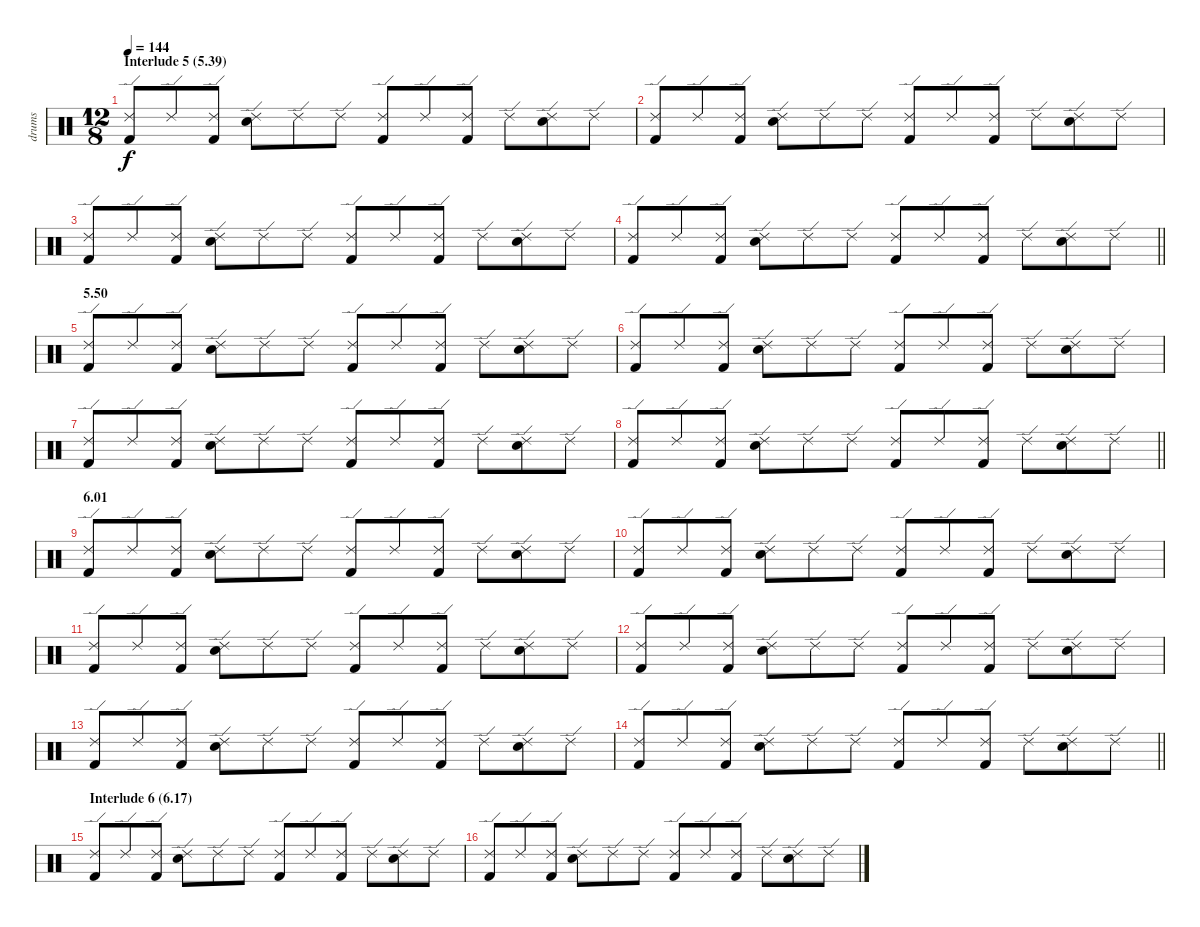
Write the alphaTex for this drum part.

\track ("drums" "drums") {instrument percussion}
\staff {score}
\articulation defaults
\ts (12 8)
\section ("" "Interlude 5 (5.39)")
\tempo 144
\clef neutral
\ks c
("Ride (edge) 2" "Kick (hit) 2").8{dy f} "Ride (edge) 2".8 ("Ride (edge) 2" "Kick (hit) 2").8 ("Ride (edge) 2" "Electric Snare (hit)").8 "Ride (edge) 2".8 "Ride (edge) 2".8 ("Ride (edge) 2" "Kick (hit) 2").8 "Ride (edge) 2".8 ("Ride (edge) 2" "Kick (hit) 2").8 "Ride (edge) 2".8 ("Ride (edge) 2" "Electric Snare (hit)").8 "Ride (edge) 2".8 |
("Ride (edge) 2" "Kick (hit) 2").8 "Ride (edge) 2".8 ("Ride (edge) 2" "Kick (hit) 2").8 ("Ride (edge) 2" "Electric Snare (hit)").8 "Ride (edge) 2".8 "Ride (edge) 2".8 ("Ride (edge) 2" "Kick (hit) 2").8 "Ride (edge) 2".8 ("Ride (edge) 2" "Kick (hit) 2").8 "Ride (edge) 2".8 ("Ride (edge) 2" "Electric Snare (hit)").8 "Ride (edge) 2".8 |
("Ride (edge) 2" "Kick (hit) 2").8 "Ride (edge) 2".8 ("Ride (edge) 2" "Kick (hit) 2").8 ("Ride (edge) 2" "Electric Snare (hit)").8 "Ride (edge) 2".8 "Ride (edge) 2".8 ("Ride (edge) 2" "Kick (hit) 2").8 "Ride (edge) 2".8 ("Ride (edge) 2" "Kick (hit) 2").8 "Ride (edge) 2".8 ("Ride (edge) 2" "Electric Snare (hit)").8 "Ride (edge) 2".8 |
\barLineRight lightlight
("Ride (edge) 2" "Kick (hit) 2").8 "Ride (edge) 2".8 ("Ride (edge) 2" "Kick (hit) 2").8 ("Ride (edge) 2" "Electric Snare (hit)").8 "Ride (edge) 2".8 "Ride (edge) 2".8 ("Ride (edge) 2" "Kick (hit) 2").8 "Ride (edge) 2".8 ("Ride (edge) 2" "Kick (hit) 2").8 "Ride (edge) 2".8 ("Ride (edge) 2" "Electric Snare (hit)").8 "Ride (edge) 2".8 |
\section ("" "5.50")
("Ride (edge) 2" "Kick (hit) 2").8 "Ride (edge) 2".8 ("Ride (edge) 2" "Kick (hit) 2").8 ("Ride (edge) 2" "Electric Snare (hit)").8 "Ride (edge) 2".8 "Ride (edge) 2".8 ("Ride (edge) 2" "Kick (hit) 2").8 "Ride (edge) 2".8 ("Ride (edge) 2" "Kick (hit) 2").8 "Ride (edge) 2".8 ("Ride (edge) 2" "Electric Snare (hit)").8 "Ride (edge) 2".8 |
("Ride (edge) 2" "Kick (hit) 2").8 "Ride (edge) 2".8 ("Ride (edge) 2" "Kick (hit) 2").8 ("Ride (edge) 2" "Electric Snare (hit)").8 "Ride (edge) 2".8 "Ride (edge) 2".8 ("Ride (edge) 2" "Kick (hit) 2").8 "Ride (edge) 2".8 ("Ride (edge) 2" "Kick (hit) 2").8 "Ride (edge) 2".8 ("Ride (edge) 2" "Electric Snare (hit)").8 "Ride (edge) 2".8 |
("Ride (edge) 2" "Kick (hit) 2").8 "Ride (edge) 2".8 ("Ride (edge) 2" "Kick (hit) 2").8 ("Ride (edge) 2" "Electric Snare (hit)").8 "Ride (edge) 2".8 "Ride (edge) 2".8 ("Ride (edge) 2" "Kick (hit) 2").8 "Ride (edge) 2".8 ("Ride (edge) 2" "Kick (hit) 2").8 "Ride (edge) 2".8 ("Ride (edge) 2" "Electric Snare (hit)").8 "Ride (edge) 2".8 |
\barLineRight lightlight
("Ride (edge) 2" "Kick (hit) 2").8 "Ride (edge) 2".8 ("Ride (edge) 2" "Kick (hit) 2").8 ("Ride (edge) 2" "Electric Snare (hit)").8 "Ride (edge) 2".8 "Ride (edge) 2".8 ("Ride (edge) 2" "Kick (hit) 2").8 "Ride (edge) 2".8 ("Ride (edge) 2" "Kick (hit) 2").8 "Ride (edge) 2".8 ("Ride (edge) 2" "Electric Snare (hit)").8 "Ride (edge) 2".8 |
\section ("" "6.01")
("Ride (edge) 2" "Kick (hit) 2").8 "Ride (edge) 2".8 ("Ride (edge) 2" "Kick (hit) 2").8 ("Ride (edge) 2" "Electric Snare (hit)").8 "Ride (edge) 2".8 "Ride (edge) 2".8 ("Ride (edge) 2" "Kick (hit) 2").8 "Ride (edge) 2".8 ("Ride (edge) 2" "Kick (hit) 2").8 "Ride (edge) 2".8 ("Ride (edge) 2" "Electric Snare (hit)").8 "Ride (edge) 2".8 |
("Ride (edge) 2" "Kick (hit) 2").8 "Ride (edge) 2".8 ("Ride (edge) 2" "Kick (hit) 2").8 ("Ride (edge) 2" "Electric Snare (hit)").8 "Ride (edge) 2".8 "Ride (edge) 2".8 ("Ride (edge) 2" "Kick (hit) 2").8 "Ride (edge) 2".8 ("Ride (edge) 2" "Kick (hit) 2").8 "Ride (edge) 2".8 ("Ride (edge) 2" "Electric Snare (hit)").8 "Ride (edge) 2".8 |
("Ride (edge) 2" "Kick (hit) 2").8 "Ride (edge) 2".8 ("Ride (edge) 2" "Kick (hit) 2").8 ("Ride (edge) 2" "Electric Snare (hit)").8 "Ride (edge) 2".8 "Ride (edge) 2".8 ("Ride (edge) 2" "Kick (hit) 2").8 "Ride (edge) 2".8 ("Ride (edge) 2" "Kick (hit) 2").8 "Ride (edge) 2".8 ("Ride (edge) 2" "Electric Snare (hit)").8 "Ride (edge) 2".8 |
("Ride (edge) 2" "Kick (hit) 2").8 "Ride (edge) 2".8 ("Ride (edge) 2" "Kick (hit) 2").8 ("Ride (edge) 2" "Electric Snare (hit)").8 "Ride (edge) 2".8 "Ride (edge) 2".8 ("Ride (edge) 2" "Kick (hit) 2").8 "Ride (edge) 2".8 ("Ride (edge) 2" "Kick (hit) 2").8 "Ride (edge) 2".8 ("Ride (edge) 2" "Electric Snare (hit)").8 "Ride (edge) 2".8 |
("Ride (edge) 2" "Kick (hit) 2").8 "Ride (edge) 2".8 ("Ride (edge) 2" "Kick (hit) 2").8 ("Ride (edge) 2" "Electric Snare (hit)").8 "Ride (edge) 2".8 "Ride (edge) 2".8 ("Ride (edge) 2" "Kick (hit) 2").8 "Ride (edge) 2".8 ("Ride (edge) 2" "Kick (hit) 2").8 "Ride (edge) 2".8 ("Ride (edge) 2" "Electric Snare (hit)").8 "Ride (edge) 2".8 |
\barLineRight lightlight
("Ride (edge) 2" "Kick (hit) 2").8 "Ride (edge) 2".8 ("Ride (edge) 2" "Kick (hit) 2").8 ("Ride (edge) 2" "Electric Snare (hit)").8 "Ride (edge) 2".8 "Ride (edge) 2".8 ("Ride (edge) 2" "Kick (hit) 2").8 "Ride (edge) 2".8 ("Ride (edge) 2" "Kick (hit) 2").8 "Ride (edge) 2".8 ("Ride (edge) 2" "Electric Snare (hit)").8 "Ride (edge) 2".8 |
\section ("" "Interlude 6 (6.17)")
("Ride (edge) 2" "Kick (hit) 2").8 "Ride (edge) 2".8 ("Ride (edge) 2" "Kick (hit) 2").8 ("Ride (edge) 2" "Electric Snare (hit)").8 "Ride (edge) 2".8 "Ride (edge) 2".8 ("Ride (edge) 2" "Kick (hit) 2").8 "Ride (edge) 2".8 ("Ride (edge) 2" "Kick (hit) 2").8 "Ride (edge) 2".8 ("Ride (edge) 2" "Electric Snare (hit)").8 "Ride (edge) 2".8 |
("Ride (edge) 2" "Kick (hit) 2").8 "Ride (edge) 2".8 ("Ride (edge) 2" "Kick (hit) 2").8 ("Ride (edge) 2" "Electric Snare (hit)").8 "Ride (edge) 2".8 "Ride (edge) 2".8 ("Ride (edge) 2" "Kick (hit) 2").8 "Ride (edge) 2".8 ("Ride (edge) 2" "Kick (hit) 2").8 "Ride (edge) 2".8 ("Ride (edge) 2" "Electric Snare (hit)").8 "Ride (edge) 2".8
